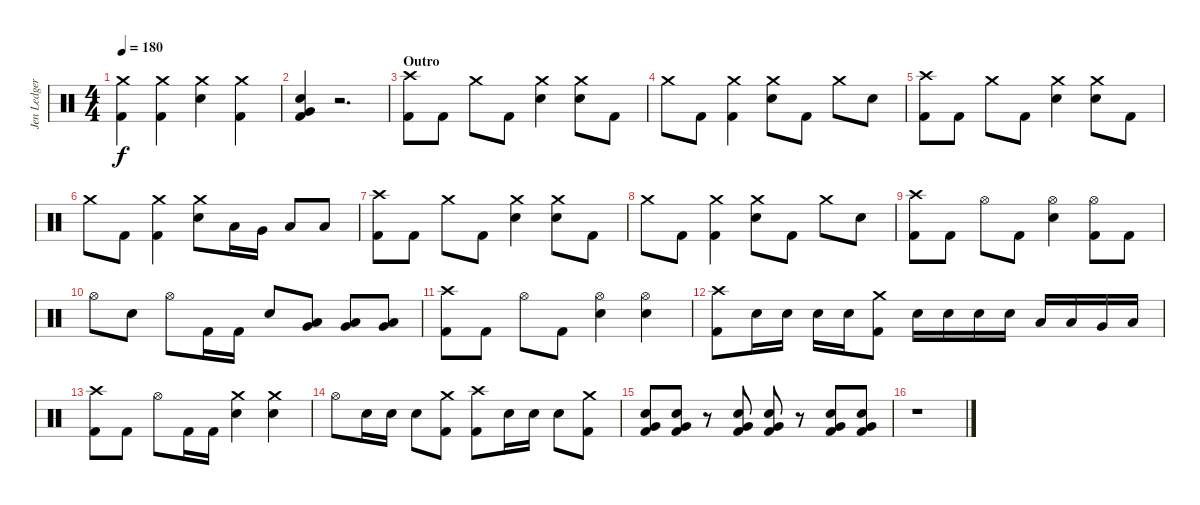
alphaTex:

\track ("Jen Ledger" "Jen Ledger") {instrument percussion}
\staff {score}
\articulation defaults
\ts (4 4)
\tempo 180
\clef neutral
\ks c
("Crash medium (hit)" "Kick (hit) 2").4{dy f} ("Crash medium (hit)" "Kick (hit) 2").4 ("Crash medium (hit)" "Electric Snare (hit)").4 ("Crash medium (hit)" "Kick (hit) 2").4 |
("Very Low Tom (hit)" "Electric Snare (hit)" "Kick (hit) 2").4 r.2{d} |
\section ("" "Outro")
("Crash high (hit)" "Kick (hit) 2").8 "Kick (hit) 2".8 "Crash medium (hit)".8 "Kick (hit) 2".8 ("Crash medium (hit)" "Electric Snare (hit)").4 ("Crash medium (hit)" "Electric Snare (hit)").8 "Kick (hit) 2".8 |
"Crash medium (hit)".8 "Kick (hit) 2".8 ("Crash medium (hit)" "Kick (hit) 2").4 ("Crash medium (hit)" "Electric Snare (hit)").8 "Kick (hit) 2".8 "Crash medium (hit)".8 "Electric Snare (hit)".8 |
("Crash high (hit)" "Kick (hit) 2").8 "Kick (hit) 2".8 "Crash medium (hit)".8 "Kick (hit) 2".8 ("Crash medium (hit)" "Electric Snare (hit)").4 ("Crash medium (hit)" "Electric Snare (hit)").8 "Kick (hit) 2".8 |
"Crash medium (hit)".8 "Kick (hit) 2".8 ("Crash medium (hit)" "Kick (hit) 2").4 ("Crash medium (hit)" "Electric Snare (hit)").8 "Low Tom (hit)".16 "Very Low Tom (hit)".16 "Low Floor Tom (hit)".8 "Low Floor Tom (hit)".8 |
("Crash high (hit)" "Kick (hit) 2").8 "Kick (hit) 2".8 "Crash medium (hit)".8 "Kick (hit) 2".8 ("Crash medium (hit)" "Electric Snare (hit)").4 ("Crash medium (hit)" "Electric Snare (hit)").8 "Kick (hit) 2".8 |
"Crash medium (hit)".8 "Kick (hit) 2".8 ("Crash medium (hit)" "Kick (hit) 2").4 ("Crash medium (hit)" "Electric Snare (hit)").8 "Kick (hit) 2".8 "Crash medium (hit)".8 "Electric Snare (hit)".8 |
("Crash high (hit)" "Kick (hit) 2").8 "Kick (hit) 2".8 "Hi-Hat (open)".8 "Kick (hit) 2".8 ("Hi-Hat (open)" "Electric Snare (hit)").4 ("Hi-Hat (open)" "Kick (hit) 2").8 "Kick (hit) 2".8 |
"Hi-Hat (open)".8 "Electric Snare (hit)".8 "Hi-Hat (open)".8 "Kick (hit) 2".16 "Kick (hit) 2".16 "Electric Snare (hit)".8 ("Very Low Tom (hit)" "Low Tom (hit)").8 ("Very Low Tom (hit)" "Low Tom (hit)").8 ("Very Low Tom (hit)" "Low Floor Tom (hit)").8 |
("Crash high (hit)" "Kick (hit) 2").8 "Kick (hit) 2".8 "Hi-Hat (open)".8 "Kick (hit) 2".8 ("Hi-Hat (open)" "Electric Snare (hit)").4 ("Hi-Hat (open)" "Electric Snare (hit)").4 |
("Crash high (hit)" "Kick (hit) 2").8 "Electric Snare (hit)".16 "Electric Snare (hit)".16 "Electric Snare (hit)".16 "Electric Snare (hit)".16 ("Crash medium (hit)" "Kick (hit) 2").8 "Electric Snare (hit)".16 "Electric Snare (hit)".16 "Electric Snare (hit)".16 "Electric Snare (hit)".16 "Low Tom (hit)".16 "Low Tom (hit)".16 "Very Low Tom (hit)".16 "Low Floor Tom (hit)".16 |
("Crash high (hit)" "Kick (hit) 2").8 "Kick (hit) 2".8 "Hi-Hat (open)".8 "Kick (hit) 2".16 "Kick (hit) 2".16 ("Crash medium (hit)" "Electric Snare (hit)").4 ("Crash medium (hit)" "Electric Snare (hit)").4 |
"Hi-Hat (open)".8 "Electric Snare (hit)".16 "Electric Snare (hit)".16 "Electric Snare (hit)".8 ("Crash medium (hit)" "Kick (hit) 2").8 ("Crash high (hit)" "Kick (hit) 2").8 "Electric Snare (hit)".16 "Electric Snare (hit)".16 "Electric Snare (hit)".8 ("Crash medium (hit)" "Kick (hit) 2").8 |
("Very Low Tom (hit)" "Electric Snare (hit)" "Kick (hit) 2").8 ("Very Low Tom (hit)" "Electric Snare (hit)" "Kick (hit) 2").8 r.8 ("Very Low Tom (hit)" "Electric Snare (hit)" "Kick (hit) 2").8 ("Very Low Tom (hit)" "Electric Snare (hit)" "Kick (hit) 2").8 r.8 ("Very Low Tom (hit)" "Electric Snare (hit)" "Kick (hit) 2").8 ("Very Low Tom (hit)" "Electric Snare (hit)" "Kick (hit) 2").8 |
r.1
